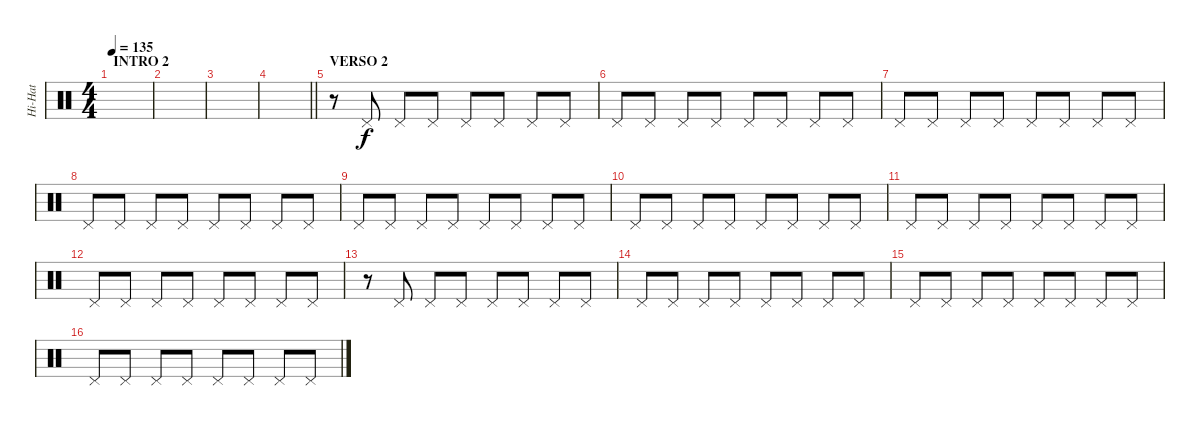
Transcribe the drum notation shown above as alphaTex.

\track ("Hi-Hat" "Hi-Hat") {instrument percussion}
\staff {score}
\articulation defaults
\ts (4 4)
\section ("" "INTRO 2")
\tempo 135
\clef neutral
\ks c
|
|
|
\barLineRight lightlight
|
\section ("" "VERSO 2")
r.8 "Pedal Hi-Hat (hit)".8 "Pedal Hi-Hat (hit)".8 "Pedal Hi-Hat (hit)".8 "Pedal Hi-Hat (hit)".8 "Pedal Hi-Hat (hit)".8 "Pedal Hi-Hat (hit)".8 "Pedal Hi-Hat (hit)".8 |
"Pedal Hi-Hat (hit)".8 "Pedal Hi-Hat (hit)".8 "Pedal Hi-Hat (hit)".8 "Pedal Hi-Hat (hit)".8 "Pedal Hi-Hat (hit)".8 "Pedal Hi-Hat (hit)".8 "Pedal Hi-Hat (hit)".8 "Pedal Hi-Hat (hit)".8 |
"Pedal Hi-Hat (hit)".8 "Pedal Hi-Hat (hit)".8 "Pedal Hi-Hat (hit)".8 "Pedal Hi-Hat (hit)".8 "Pedal Hi-Hat (hit)".8 "Pedal Hi-Hat (hit)".8 "Pedal Hi-Hat (hit)".8 "Pedal Hi-Hat (hit)".8 |
"Pedal Hi-Hat (hit)".8 "Pedal Hi-Hat (hit)".8 "Pedal Hi-Hat (hit)".8 "Pedal Hi-Hat (hit)".8 "Pedal Hi-Hat (hit)".8 "Pedal Hi-Hat (hit)".8 "Pedal Hi-Hat (hit)".8 "Pedal Hi-Hat (hit)".8 |
"Pedal Hi-Hat (hit)".8 "Pedal Hi-Hat (hit)".8 "Pedal Hi-Hat (hit)".8 "Pedal Hi-Hat (hit)".8 "Pedal Hi-Hat (hit)".8 "Pedal Hi-Hat (hit)".8 "Pedal Hi-Hat (hit)".8 "Pedal Hi-Hat (hit)".8 |
"Pedal Hi-Hat (hit)".8 "Pedal Hi-Hat (hit)".8 "Pedal Hi-Hat (hit)".8 "Pedal Hi-Hat (hit)".8 "Pedal Hi-Hat (hit)".8 "Pedal Hi-Hat (hit)".8 "Pedal Hi-Hat (hit)".8 "Pedal Hi-Hat (hit)".8 |
"Pedal Hi-Hat (hit)".8 "Pedal Hi-Hat (hit)".8 "Pedal Hi-Hat (hit)".8 "Pedal Hi-Hat (hit)".8 "Pedal Hi-Hat (hit)".8 "Pedal Hi-Hat (hit)".8 "Pedal Hi-Hat (hit)".8 "Pedal Hi-Hat (hit)".8 |
"Pedal Hi-Hat (hit)".8 "Pedal Hi-Hat (hit)".8 "Pedal Hi-Hat (hit)".8 "Pedal Hi-Hat (hit)".8 "Pedal Hi-Hat (hit)".8 "Pedal Hi-Hat (hit)".8 "Pedal Hi-Hat (hit)".8 "Pedal Hi-Hat (hit)".8 |
r.8 "Pedal Hi-Hat (hit)".8 "Pedal Hi-Hat (hit)".8 "Pedal Hi-Hat (hit)".8 "Pedal Hi-Hat (hit)".8 "Pedal Hi-Hat (hit)".8 "Pedal Hi-Hat (hit)".8 "Pedal Hi-Hat (hit)".8 |
"Pedal Hi-Hat (hit)".8 "Pedal Hi-Hat (hit)".8 "Pedal Hi-Hat (hit)".8 "Pedal Hi-Hat (hit)".8 "Pedal Hi-Hat (hit)".8 "Pedal Hi-Hat (hit)".8 "Pedal Hi-Hat (hit)".8 "Pedal Hi-Hat (hit)".8 |
"Pedal Hi-Hat (hit)".8 "Pedal Hi-Hat (hit)".8 "Pedal Hi-Hat (hit)".8 "Pedal Hi-Hat (hit)".8 "Pedal Hi-Hat (hit)".8 "Pedal Hi-Hat (hit)".8 "Pedal Hi-Hat (hit)".8 "Pedal Hi-Hat (hit)".8 |
"Pedal Hi-Hat (hit)".8 "Pedal Hi-Hat (hit)".8 "Pedal Hi-Hat (hit)".8 "Pedal Hi-Hat (hit)".8 "Pedal Hi-Hat (hit)".8 "Pedal Hi-Hat (hit)".8 "Pedal Hi-Hat (hit)".8 "Pedal Hi-Hat (hit)".8
